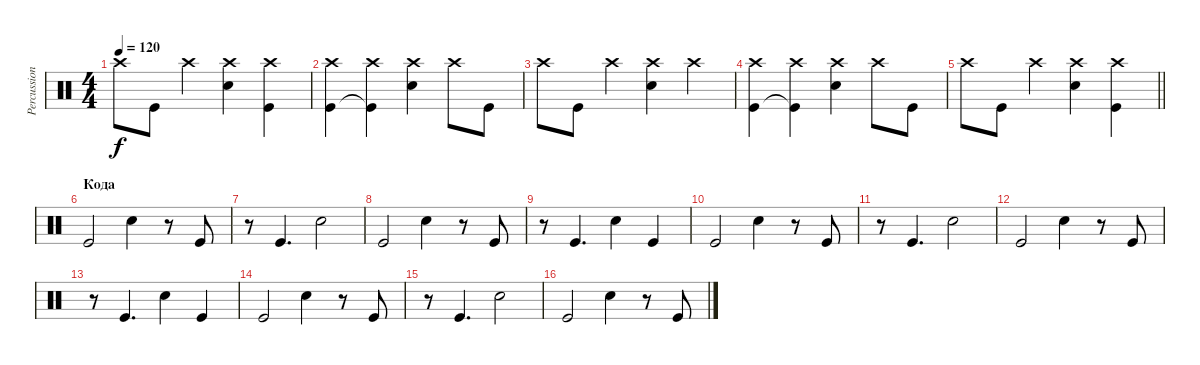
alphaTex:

\track ("Percussion" "Percussion") {instrument percussion}
\staff {score}
\articulation defaults
\ts (4 4)
\tempo 120
\clef neutral
\ks c "Crash high (hit)".8{dy f} "Kick (hit)".8 "Crash high (hit)".4
("Crash high (hit)" "Snare (hit) 2").4 ("Crash high (hit)" "Kick (hit)").4 |
("Crash high (hit)" "Kick (hit)").4 ("Crash high (hit)" "Kick (hit)"{t}).4 ("Crash high (hit)" "Snare (hit) 2").4 "Crash high (hit)".8 "Kick (hit)".8 |
"Crash high (hit)".8 "Kick (hit)".8 "Crash high (hit)".4 ("Crash high (hit)" "Snare (hit) 2").4 "Crash high (hit)".4 |
("Crash high (hit)" "Kick (hit)").4 ("Crash high (hit)" "Kick (hit)"{t}).4 ("Crash high (hit)" "Snare (hit) 2").4 "Crash high (hit)".8 "Kick (hit)".8 |
\barLineRight lightlight "Crash high (hit)".8 "Kick (hit)".8 "Crash high (hit)".4
("Crash high (hit)" "Snare (hit) 2").4 ("Crash high (hit)" "Kick (hit)").4 |
\section ("" "Кода")
"Kick (hit)".2 "Snare (hit) 2".4 r.8 "Kick (hit)".8 |
r.8 "Kick (hit)".4{d} "Snare (hit) 2".2 |
"Kick (hit)".2 "Snare (hit) 2".4 r.8 "Kick (hit)".8 |
r.8 "Kick (hit)".4{d} "Snare (hit) 2".4 "Kick (hit)".4 |
"Kick (hit)".2 "Snare (hit) 2".4 r.8 "Kick (hit)".8 |
r.8 "Kick (hit)".4{d} "Snare (hit) 2".2 |
"Kick (hit)".2 "Snare (hit) 2".4 r.8 "Kick (hit)".8 |
r.8 "Kick (hit)".4{d} "Snare (hit) 2".4 "Kick (hit)".4 |
"Kick (hit)".2 "Snare (hit) 2".4 r.8 "Kick (hit)".8 |
r.8 "Kick (hit)".4{d} "Snare (hit) 2".2 |
"Kick (hit)".2 "Snare (hit) 2".4 r.8 "Kick (hit)".8
